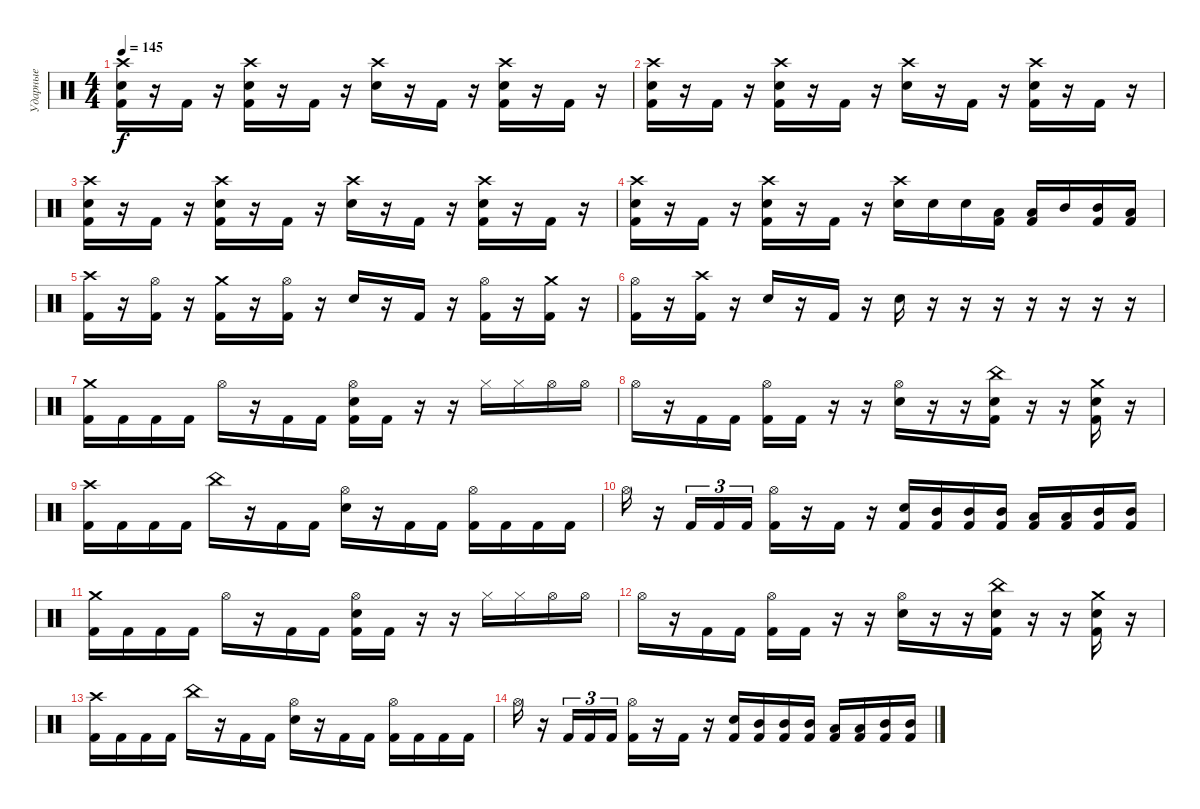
\track ("Ударные" "Ударные") {instrument percussion}
\staff {score}
\articulation defaults
\ts (4 4)
\tempo 145
\clef neutral
\ks c
("Crash high (hit)" "Electric Snare (hit)" "Kick (hit) 2").16{dy f} r.16 "Kick (hit) 2".16 r.16 ("Crash high (hit)" "Electric Snare (hit)" "Kick (hit) 2").16 r.16 "Kick (hit) 2".16 r.16 ("Crash high (hit)" "Electric Snare (hit)").16 r.16 "Kick (hit) 2".16 r.16 ("Crash high (hit)" "Electric Snare (hit)" "Kick (hit) 2").16 r.16 "Kick (hit) 2".16 r.16 |
("Crash high (hit)" "Electric Snare (hit)" "Kick (hit) 2").16 r.16 "Kick (hit) 2".16 r.16 ("Crash high (hit)" "Electric Snare (hit)" "Kick (hit) 2").16 r.16 "Kick (hit) 2".16 r.16 ("Crash high (hit)" "Electric Snare (hit)").16 r.16 "Kick (hit) 2".16 r.16 ("Crash high (hit)" "Electric Snare (hit)" "Kick (hit) 2").16 r.16 "Kick (hit) 2".16 r.16 |
("Crash high (hit)" "Electric Snare (hit)" "Kick (hit) 2").16 r.16 "Kick (hit) 2".16 r.16 ("Crash high (hit)" "Electric Snare (hit)" "Kick (hit) 2").16 r.16 "Kick (hit) 2".16 r.16 ("Crash high (hit)" "Electric Snare (hit)").16 r.16 "Kick (hit) 2".16 r.16 ("Crash high (hit)" "Electric Snare (hit)" "Kick (hit) 2").16 r.16 "Kick (hit) 2".16 r.16 |
("Crash high (hit)" "Electric Snare (hit)" "Kick (hit) 2").16 r.16 "Kick (hit) 2".16 r.16 ("Crash high (hit)" "Electric Snare (hit)" "Kick (hit) 2").16 r.16 "Kick (hit) 2".16 r.16 ("Crash high (hit)" "Electric Snare (hit)").16 "Electric Snare (hit)".16 "Electric Snare (hit)".16 ("Low Tom (hit)" "Kick (hit) 2").16 ("Low Tom (hit)" "Kick (hit) 2").16 "Mid Tom (hit)".16 ("Mid Tom (hit)" "Kick (hit) 2").16 ("Low Floor Tom (hit)" "Kick (hit) 2").16 |
("Crash high (hit)" "Kick (hit) 2").16 r.16 ("Hi-Hat (open)" "Kick (hit) 2").16 r.16 ("Crash medium (hit)" "Kick (hit) 2").16 r.16 ("Hi-Hat (open)" "Kick (hit) 2").16 r.16 "Electric Snare (hit)".16 r.16 "Kick (hit) 2".16 r.16 ("Hi-Hat (open)" "Kick (hit) 2").16 r.16 ("Crash medium (hit)" "Kick (hit) 2").16 r.16 |
("Hi-Hat (open)" "Kick (hit) 2").16 r.16 ("Crash high (hit)" "Kick (hit) 2").16 r.16 "Electric Snare (hit)".16 r.16 "Kick (hit) 2".16 r.16 "Electric Snare (hit)".16 r.16 r.16 r.16 r.16 r.16 r.16 r.16 |
("Crash medium (hit)" "Kick (hit) 2").16 "Kick (hit) 2".16 "Kick (hit) 2".16 "Kick (hit) 2".16 "Hi-Hat (open)".16 r.16 "Kick (hit) 2".16 "Kick (hit) 2".16 ("Hi-Hat (open)" "Electric Snare (hit)" "Kick (hit) 2").16 "Kick (hit) 2".16 r.16 r.16 "Hi-Hat (closed)".16 "Hi-Hat (closed)".16 "Hi-Hat (open)".16 "Hi-Hat (open)".16 |
"Hi-Hat (open)".16 r.16 "Kick (hit) 2".16 "Kick (hit) 2".16 ("Hi-Hat (open)" "Kick (hit) 2").16 "Kick (hit) 2".16 r.16 r.16 ("Hi-Hat (open)" "Electric Snare (hit)").16 r.16 r.16 ("China (hit)" "Electric Snare (hit)" "Kick (hit) 2").16 r.16 r.16 ("Crash medium (hit)" "Electric Snare (hit)" "Kick (hit) 2").16 r.16 |
("Crash high (hit)" "Kick (hit) 2").16 "Kick (hit) 2".16 "Kick (hit) 2".16 "Kick (hit) 2".16 "China (hit)".16 r.16 "Kick (hit) 2".16 "Kick (hit) 2".16 ("Hi-Hat (open)" "Electric Snare (hit)").16 r.16 "Kick (hit) 2".16 "Kick (hit) 2".16 ("Hi-Hat (open)" "Kick (hit) 2").16 "Kick (hit) 2".16 "Kick (hit) 2".16 "Kick (hit) 2".16 |
"Hi-Hat (open)".16 r.16 "Kick (hit) 2".16{tu (3 2)} "Kick (hit) 2".16{tu (3 2)} "Kick (hit) 2".16{tu (3 2)} ("Hi-Hat (open)" "Kick (hit) 2").16 r.16 "Kick (hit) 2".16 r.16 ("Electric Snare (hit)" "Kick (hit) 2").16 ("Mid Tom (hit)" "Kick (hit) 2").16 ("Mid Tom (hit)" "Kick (hit) 2").16 ("Mid Tom (hit)" "Kick (hit) 2").16 ("Low Tom (hit)" "Kick (hit) 2").16 ("Low Tom (hit)" "Kick (hit) 2").16 ("Mid Tom (hit)" "Kick (hit) 2").16 ("Mid Tom (hit)" "Kick (hit) 2").16 |
("Crash medium (hit)" "Kick (hit) 2").16 "Kick (hit) 2".16 "Kick (hit) 2".16 "Kick (hit) 2".16 "Hi-Hat (open)".16 r.16 "Kick (hit) 2".16 "Kick (hit) 2".16 ("Hi-Hat (open)" "Electric Snare (hit)" "Kick (hit) 2").16 "Kick (hit) 2".16 r.16 r.16 "Hi-Hat (closed)".16 "Hi-Hat (closed)".16 "Hi-Hat (open)".16 "Hi-Hat (open)".16 |
"Hi-Hat (open)".16 r.16 "Kick (hit) 2".16 "Kick (hit) 2".16 ("Hi-Hat (open)" "Kick (hit) 2").16 "Kick (hit) 2".16 r.16 r.16 ("Hi-Hat (open)" "Electric Snare (hit)").16 r.16 r.16 ("China (hit)" "Electric Snare (hit)" "Kick (hit) 2").16 r.16 r.16 ("Crash medium (hit)" "Electric Snare (hit)" "Kick (hit) 2").16 r.16 |
("Crash high (hit)" "Kick (hit) 2").16 "Kick (hit) 2".16 "Kick (hit) 2".16 "Kick (hit) 2".16 "China (hit)".16 r.16 "Kick (hit) 2".16 "Kick (hit) 2".16 ("Hi-Hat (open)" "Electric Snare (hit)").16 r.16 "Kick (hit) 2".16 "Kick (hit) 2".16 ("Hi-Hat (open)" "Kick (hit) 2").16 "Kick (hit) 2".16 "Kick (hit) 2".16 "Kick (hit) 2".16 |
"Hi-Hat (open)".16 r.16 "Kick (hit) 2".16{tu (3 2)} "Kick (hit) 2".16{tu (3 2)} "Kick (hit) 2".16{tu (3 2)} ("Hi-Hat (open)" "Kick (hit) 2").16 r.16 "Kick (hit) 2".16 r.16 ("Electric Snare (hit)" "Kick (hit) 2").16 ("Mid Tom (hit)" "Kick (hit) 2").16 ("Mid Tom (hit)" "Kick (hit) 2").16 ("Mid Tom (hit)" "Kick (hit) 2").16 ("Low Tom (hit)" "Kick (hit) 2").16 ("Low Tom (hit)" "Kick (hit) 2").16 ("Mid Tom (hit)" "Kick (hit) 2").16 ("Mid Tom (hit)" "Kick (hit) 2").16
